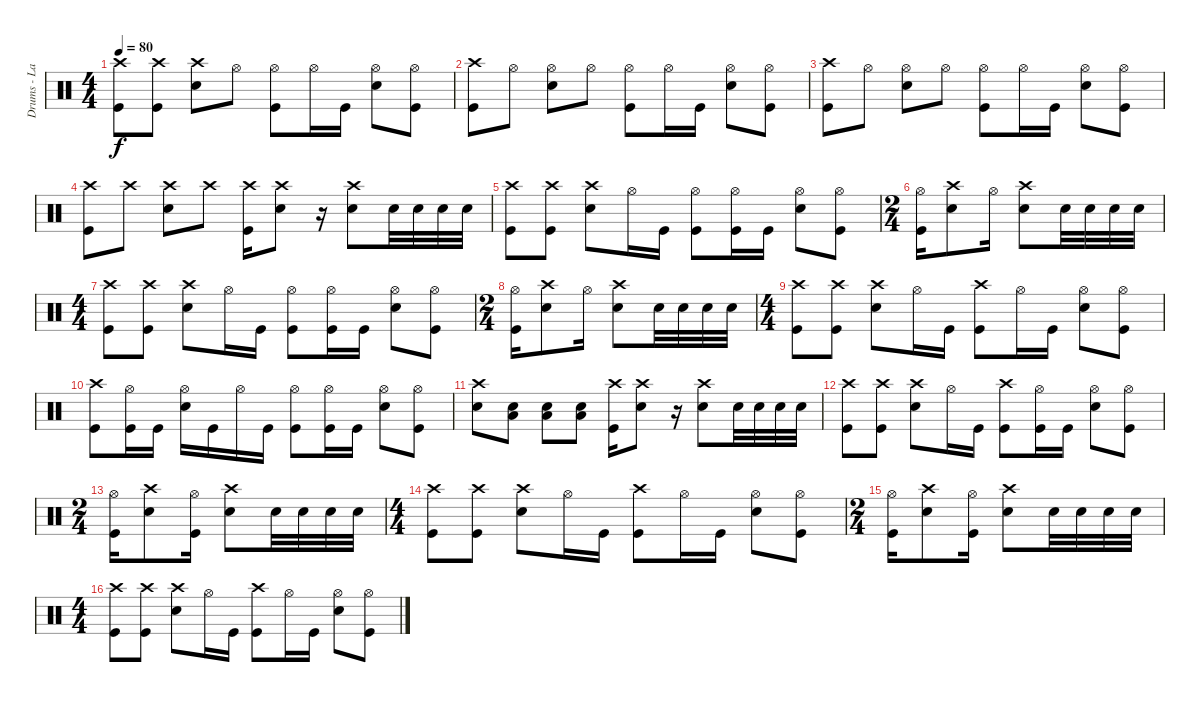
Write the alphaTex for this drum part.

\track ("Drums - Lars" "Drums - La") {instrument percussion}
\staff {score}
\articulation defaults
\ts (4 4)
\tempo 80
\clef neutral
\ks c
("Crash high (hit)" "Kick (hit)").8{dy f} ("Crash high (hit)" "Kick (hit)").8 ("Crash high (hit)" "Snare (hit) 2").8 "Hi-Hat (open)".8 ("Hi-Hat (open)" "Kick (hit)").8 "Hi-Hat (open)".16 "Kick (hit)".16 ("Hi-Hat (open)" "Snare (hit) 2").8 ("Hi-Hat (open)" "Kick (hit)").8 |
("Crash high (hit)" "Kick (hit)").8 "Hi-Hat (open)".8 ("Hi-Hat (open)" "Snare (hit) 2").8 "Hi-Hat (open)".8 ("Hi-Hat (open)" "Kick (hit)").8 "Hi-Hat (open)".16 "Kick (hit)".16 ("Hi-Hat (open)" "Snare (hit) 2").8 ("Hi-Hat (open)" "Kick (hit)").8 |
("Crash high (hit)" "Kick (hit)").8 "Hi-Hat (open)".8 ("Hi-Hat (open)" "Snare (hit) 2").8 "Hi-Hat (open)".8 ("Hi-Hat (open)" "Kick (hit)").8 "Hi-Hat (open)".16 "Kick (hit)".16 ("Hi-Hat (open)" "Snare (hit) 2").8 ("Hi-Hat (open)" "Kick (hit)").8 |
("Crash high (hit)" "Kick (hit)").8 "Crash high (hit)".8 ("Crash high (hit)" "Snare (hit) 2").8 "Crash high (hit)".8 ("Crash high (hit)" "Kick (hit)").16 ("Crash high (hit)" "Snare (hit) 2").8 r.16 ("Crash high (hit)" "Snare (hit) 2").8 "Snare (hit) 2".32 "Snare (hit) 2".32 "Snare (hit) 2".32 "Snare (hit) 2".32 |
("Crash high (hit)" "Kick (hit)").8 ("Crash high (hit)" "Kick (hit)").8 ("Crash high (hit)" "Snare (hit) 2").8 "Hi-Hat (open)".16 "Kick (hit)".16 ("Hi-Hat (open)" "Kick (hit)").8 ("Hi-Hat (open)" "Kick (hit)").16 "Kick (hit)".16 ("Hi-Hat (open)" "Snare (hit) 2").8 ("Hi-Hat (open)" "Kick (hit)").8 |
\ts (2 4)
("Hi-Hat (open)" "Kick (hit)").16 ("Crash high (hit)" "Snare (hit) 2").8 "Hi-Hat (open)".16 ("Crash high (hit)" "Snare (hit) 2").8 "Snare (hit) 2".32 "Snare (hit) 2".32 "Snare (hit) 2".32 "Snare (hit) 2".32 |
\ts (4 4)
("Crash high (hit)" "Kick (hit)").8 ("Crash high (hit)" "Kick (hit)").8 ("Crash high (hit)" "Snare (hit) 2").8 "Hi-Hat (open)".16 "Kick (hit)".16 ("Hi-Hat (open)" "Kick (hit)").8 ("Hi-Hat (open)" "Kick (hit)").16 "Kick (hit)".16 ("Hi-Hat (open)" "Snare (hit) 2").8 ("Hi-Hat (open)" "Kick (hit)").8 |
\ts (2 4)
("Hi-Hat (open)" "Kick (hit)").16 ("Crash high (hit)" "Snare (hit) 2").8 "Hi-Hat (open)".16 ("Crash high (hit)" "Snare (hit) 2").8 "Snare (hit) 2".32 "Snare (hit) 2".32 "Snare (hit) 2".32 "Snare (hit) 2".32 |
\ts (4 4)
("Crash high (hit)" "Kick (hit)").8 ("Crash high (hit)" "Kick (hit)").8 ("Crash high (hit)" "Snare (hit) 2").8 "Hi-Hat (open)".16 "Kick (hit)".16 ("Crash high (hit)" "Kick (hit)").8 "Hi-Hat (open)".16 "Kick (hit)".16 ("Hi-Hat (open)" "Snare (hit) 2").8 ("Hi-Hat (open)" "Kick (hit)").8 |
("Crash high (hit)" "Kick (hit)").8 ("Hi-Hat (open)" "Kick (hit)").16 "Kick (hit)".16 ("Hi-Hat (open)" "Snare (hit) 2").16 "Kick (hit)".16 "Hi-Hat (open)".16 "Kick (hit)".16 ("Hi-Hat (open)" "Kick (hit)").8 ("Hi-Hat (open)" "Kick (hit)").16 "Kick (hit)".16 ("Hi-Hat (open)" "Snare (hit) 2").8 ("Hi-Hat (open)" "Kick (hit)").8 |
("Crash high (hit)" "Snare (hit) 2").8 ("Snare (hit) 2" "Low Floor Tom (hit)").8 ("Snare (hit) 2" "Low Floor Tom (hit)").8 ("Snare (hit) 2" "Low Floor Tom (hit)").8 ("Crash high (hit)" "Kick (hit)").16 ("Crash high (hit)" "Snare (hit) 2").8 r.16 ("Crash high (hit)" "Snare (hit) 2").8 "Snare (hit) 2".32 "Snare (hit) 2".32 "Snare (hit) 2".32 "Snare (hit) 2".32 |
("Crash high (hit)" "Kick (hit)").8 ("Crash high (hit)" "Kick (hit)").8 ("Crash high (hit)" "Snare (hit) 2").8 "Hi-Hat (open)".16 "Kick (hit)".16 ("Crash high (hit)" "Kick (hit)").8 ("Hi-Hat (open)" "Kick (hit)").16 "Kick (hit)".16 ("Hi-Hat (open)" "Snare (hit) 2").8 ("Hi-Hat (open)" "Kick (hit)").8 |
\ts (2 4)
("Hi-Hat (open)" "Kick (hit)").16 ("Crash high (hit)" "Snare (hit) 2").8 ("Hi-Hat (open)" "Kick (hit)").16 ("Crash high (hit)" "Snare (hit) 2").8 "Snare (hit) 2".32 "Snare (hit) 2".32 "Snare (hit) 2".32 "Snare (hit) 2".32 |
\ts (4 4)
("Crash high (hit)" "Kick (hit)").8 ("Crash high (hit)" "Kick (hit)").8 ("Crash high (hit)" "Snare (hit) 2").8 "Hi-Hat (open)".16 "Kick (hit)".16 ("Crash high (hit)" "Kick (hit)").8 "Hi-Hat (open)".16 "Kick (hit)".16 ("Hi-Hat (open)" "Snare (hit) 2").8 ("Hi-Hat (open)" "Kick (hit)").8 |
\ts (2 4)
("Hi-Hat (open)" "Kick (hit)").16 ("Crash high (hit)" "Snare (hit) 2").8 ("Hi-Hat (open)" "Kick (hit)").16 ("Crash high (hit)" "Snare (hit) 2").8 "Snare (hit) 2".32 "Snare (hit) 2".32 "Snare (hit) 2".32 "Snare (hit) 2".32 |
\ts (4 4)
("Crash high (hit)" "Kick (hit)").8 ("Crash high (hit)" "Kick (hit)").8 ("Crash high (hit)" "Snare (hit) 2").8 "Hi-Hat (open)".16 "Kick (hit)".16 ("Crash high (hit)" "Kick (hit)").8 "Hi-Hat (open)".16 "Kick (hit)".16 ("Hi-Hat (open)" "Snare (hit) 2").8 ("Hi-Hat (open)" "Kick (hit)").8
